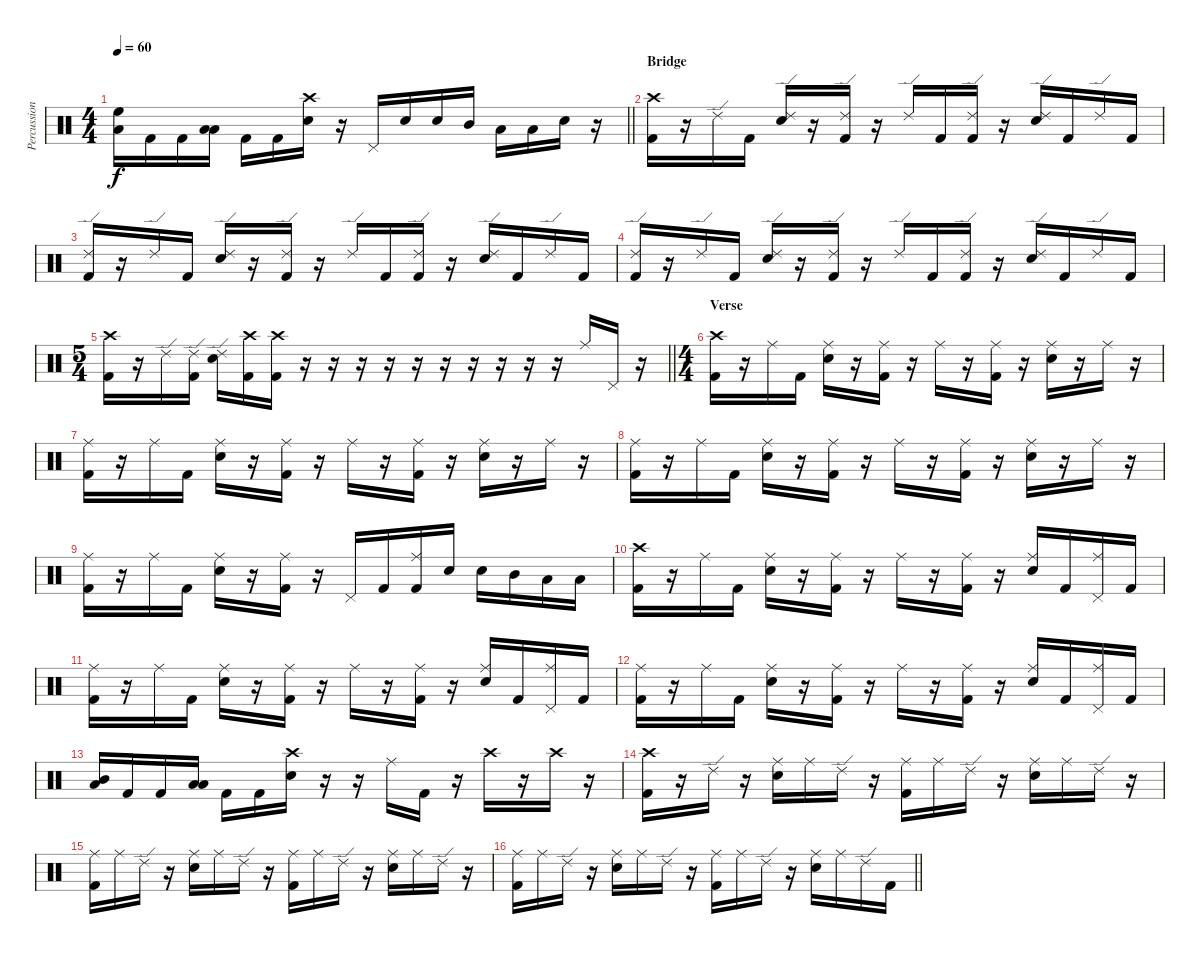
\track ("Percussion" "Percussion") {instrument percussion}
\staff {score}
\articulation defaults
\ts (4 4)
\tempo 60
\clef neutral
\barLineRight lightlight
\ks c
("High Floor Tom (hit)" "Low Tom (hit)").16{dy f} "Kick (hit) 2".16 "Kick (hit) 2".16 ("Low Tom (hit)" "Low Floor Tom (hit)").16 "Kick (hit) 2".16 "Kick (hit) 2".16 ("Crash high (hit)" "Electric Snare (hit)").16 r.16 "Pedal Hi-Hat (hit)".16 "Electric Snare (hit)".16 "Electric Snare (hit)".16 "Mid Tom (hit)".16 "Low Tom (hit)".16 "Low Floor Tom (hit)".16 "Electric Snare (hit)".16 r.16 |
\section ("" "Bridge")
("Crash high (hit)" "Kick (hit) 2").16 r.16 "Ride (edge) 2".16 "Kick (hit) 2".16 ("Ride (edge) 2" "Electric Snare (hit)").16 r.16 ("Ride (edge) 2" "Kick (hit) 2").16 r.16 "Ride (edge) 2".16 "Kick (hit) 2".16 ("Ride (edge) 2" "Kick (hit) 2").16 r.16 ("Ride (edge) 2" "Electric Snare (hit)").16 "Kick (hit) 2".16 "Ride (edge) 2".16 "Kick (hit) 2".16 |
("Ride (edge) 2" "Kick (hit) 2").16 r.16 "Ride (edge) 2".16 "Kick (hit) 2".16 ("Ride (edge) 2" "Electric Snare (hit)").16 r.16 ("Ride (edge) 2" "Kick (hit) 2").16 r.16 "Ride (edge) 2".16 "Kick (hit) 2".16 ("Ride (edge) 2" "Kick (hit) 2").16 r.16 ("Ride (edge) 2" "Electric Snare (hit)").16 "Kick (hit) 2".16 "Ride (edge) 2".16 "Kick (hit) 2".16 |
("Ride (edge) 2" "Kick (hit) 2").16 r.16 "Ride (edge) 2".16 "Kick (hit) 2".16 ("Ride (edge) 2" "Electric Snare (hit)").16 r.16 ("Ride (edge) 2" "Kick (hit) 2").16 r.16 "Ride (edge) 2".16 "Kick (hit) 2".16 ("Ride (edge) 2" "Kick (hit) 2").16 r.16 ("Ride (edge) 2" "Electric Snare (hit)").16 "Kick (hit) 2".16 "Ride (edge) 2".16 "Kick (hit) 2".16 |
\ts (5 4)
\barLineRight lightlight
("Crash high (hit)" "Kick (hit) 2").16 r.16 "Ride (edge) 2".16 ("Ride (edge) 2" "Kick (hit) 2").16 ("Ride (edge) 2" "Electric Snare (hit)").16 ("Crash high (hit)" "Kick (hit) 2").16 ("Crash high (hit)" "Kick (hit) 2").16 r.16 r.16 r.16 r.16 r.16 r.16 r.16 r.16 r.16 r.16 "Ride (middle)".16 "Pedal Hi-Hat (hit)".16 r.16 |
\ts (4 4)
\section ("" "Verse")
("Crash high (hit)" "Kick (hit) 2").16 r.16 "Ride (middle)".16 "Kick (hit) 2".16 ("Ride (middle)" "Electric Snare (hit)").16 r.16 ("Ride (middle)" "Kick (hit) 2").16 r.16 "Ride (middle)".16 r.16 ("Ride (middle)" "Kick (hit) 2").16 r.16 ("Ride (middle)" "Electric Snare (hit)").16 r.16 "Ride (middle)".16 r.16 |
("Ride (middle)" "Kick (hit) 2").16 r.16 "Ride (middle)".16 "Kick (hit) 2".16 ("Ride (middle)" "Electric Snare (hit)").16 r.16 ("Ride (middle)" "Kick (hit) 2").16 r.16 "Ride (middle)".16 r.16 ("Ride (middle)" "Kick (hit) 2").16 r.16 ("Ride (middle)" "Electric Snare (hit)").16 r.16 "Ride (middle)".16 r.16 |
("Ride (middle)" "Kick (hit) 2").16 r.16 "Ride (middle)".16 "Kick (hit) 2".16 ("Ride (middle)" "Electric Snare (hit)").16 r.16 ("Ride (middle)" "Kick (hit) 2").16 r.16 "Ride (middle)".16 r.16 ("Ride (middle)" "Kick (hit) 2").16 r.16 ("Ride (middle)" "Electric Snare (hit)").16 r.16 "Ride (middle)".16 r.16 |
("Ride (middle)" "Kick (hit) 2").16 r.16 "Ride (middle)".16 "Kick (hit) 2".16 ("Ride (middle)" "Electric Snare (hit)").16 r.16 ("Ride (middle)" "Kick (hit) 2").16 r.16 "Pedal Hi-Hat (hit)".16 "Kick (hit) 2".16 ("Ride (middle)" "Kick (hit) 2").16 "Electric Snare (hit)".16 "Electric Snare (hit)".16 "Mid Tom (hit)".16 "Low Tom (hit)".16 "Low Floor Tom (hit)".16 |
("Crash high (hit)" "Kick (hit) 2").16 r.16 "Ride (middle)".16 "Kick (hit) 2".16 ("Ride (middle)" "Electric Snare (hit)").16 r.16 ("Ride (middle)" "Kick (hit) 2").16 r.16 "Ride (middle)".16 r.16 ("Ride (middle)" "Kick (hit) 2").16 r.16 ("Ride (middle)" "Electric Snare (hit)").16 "Kick (hit) 2".16 ("Pedal Hi-Hat (hit)" "Ride (middle)").16 "Kick (hit) 2".16 |
("Ride (middle)" "Kick (hit) 2").16 r.16 "Ride (middle)".16 "Kick (hit) 2".16 ("Ride (middle)" "Electric Snare (hit)").16 r.16 ("Ride (middle)" "Kick (hit) 2").16 r.16 "Ride (middle)".16 r.16 ("Ride (middle)" "Kick (hit) 2").16 r.16 ("Ride (middle)" "Electric Snare (hit)").16 "Kick (hit) 2".16 ("Pedal Hi-Hat (hit)" "Ride (middle)").16 "Kick (hit) 2".16 |
("Ride (middle)" "Kick (hit) 2").16 r.16 "Ride (middle)".16 "Kick (hit) 2".16 ("Ride (middle)" "Electric Snare (hit)").16 r.16 ("Ride (middle)" "Kick (hit) 2").16 r.16 "Ride (middle)".16 r.16 ("Ride (middle)" "Kick (hit) 2").16 r.16 ("Ride (middle)" "Electric Snare (hit)").16 "Kick (hit) 2".16 ("Pedal Hi-Hat (hit)" "Ride (middle)").16 "Kick (hit) 2".16 |
("Mid Tom (hit)" "Low Tom (hit)").16 "Kick (hit) 2".16 "Kick (hit) 2".16 ("Low Tom (hit)" "Low Floor Tom (hit)").16 "Kick (hit) 2".16 "Kick (hit) 2".16 ("Crash high (hit)" "Electric Snare (hit)").16 r.16 r.16 "Ride (middle)".16 "Kick (hit) 2".16 r.16 "Crash high (hit)".16 r.16 "Crash high (hit)".16 r.16 |
("Crash high (hit)" "Kick (hit) 2").16 r.16 "Ride (edge) 2".16 r.16 ("Ride (middle)" "Electric Snare (hit)").16 "Ride (middle)".16 "Ride (edge) 2".16 r.16 ("Ride (middle)" "Kick (hit) 2").16 "Ride (middle)".16 "Ride (edge) 2".16 r.16 ("Ride (middle)" "Electric Snare (hit)").16 "Ride (middle)".16 "Ride (edge) 2".16 r.16 |
("Ride (middle)" "Kick (hit) 2").16 "Ride (middle)".16 "Ride (edge) 2".16 r.16 ("Ride (middle)" "Electric Snare (hit)").16 "Ride (middle)".16 "Ride (edge) 2".16 r.16 ("Ride (middle)" "Kick (hit) 2").16 "Ride (middle)".16 "Ride (edge) 2".16 r.16 ("Ride (middle)" "Electric Snare (hit)").16 "Ride (middle)".16 "Ride (edge) 2".16 r.16 |
\barLineRight lightlight
("Ride (middle)" "Kick (hit) 2").16 "Ride (middle)".16 "Ride (edge) 2".16 r.16 ("Ride (middle)" "Electric Snare (hit)").16 "Ride (middle)".16 "Ride (edge) 2".16 r.16 ("Ride (middle)" "Kick (hit) 2").16 "Ride (middle)".16 "Ride (edge) 2".16 r.16 ("Ride (middle)" "Electric Snare (hit)").16 "Ride (middle)".16 "Ride (edge) 2".16 "Kick (hit) 2".16
